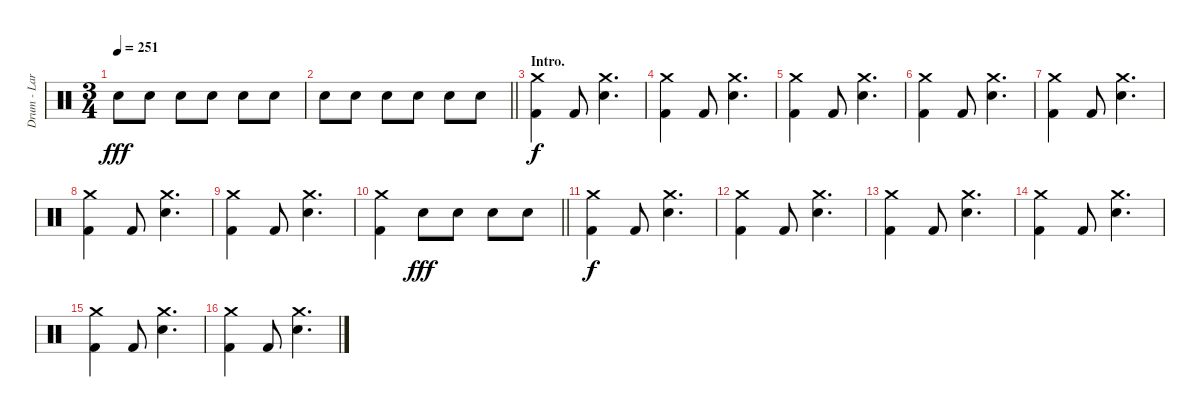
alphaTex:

\track ("Drum - Larzon" "Drum - Lar") {instrument percussion}
\staff {score}
\articulation defaults
\ts (3 4)
\tempo 251
\clef neutral
\ks c "Electric Snare (hit)".8{dy fff} "Electric Snare (hit)".8 "Electric Snare (hit)".8 "Electric Snare (hit)".8 "Electric Snare (hit)".8 "Electric Snare (hit)".8
|
\barLineRight lightlight "Electric Snare (hit)".8 "Electric Snare (hit)".8 "Electric Snare (hit)".8 "Electric Snare (hit)".8 "Electric Snare (hit)".8 "Electric Snare (hit)".8
|
\section ("" "Intro.")
("Kick (hit) 2" "Crash medium (hit)").4{dy f} "Kick (hit) 2".8 ("Snare (hit) 2" "Crash medium (hit)").4{d} |
("Kick (hit) 2" "Crash medium (hit)").4 "Kick (hit) 2".8 ("Snare (hit) 2" "Crash medium (hit)").4{d} |
("Kick (hit) 2" "Crash medium (hit)").4 "Kick (hit) 2".8 ("Snare (hit) 2" "Crash medium (hit)").4{d} |
("Kick (hit) 2" "Crash medium (hit)").4 "Kick (hit) 2".8 ("Snare (hit) 2" "Crash medium (hit)").4{d} |
("Kick (hit) 2" "Crash medium (hit)").4 "Kick (hit) 2".8 ("Snare (hit) 2" "Crash medium (hit)").4{d} |
("Kick (hit) 2" "Crash medium (hit)").4 "Kick (hit) 2".8 ("Snare (hit) 2" "Crash medium (hit)").4{d} |
("Kick (hit) 2" "Crash medium (hit)").4 "Kick (hit) 2".8 ("Snare (hit) 2" "Crash medium (hit)").4{d} |
\barLineRight lightlight
("Kick (hit) 2" "Crash medium (hit)").4 "Electric Snare (hit)".8{dy fff} "Electric Snare (hit)".8 "Electric Snare (hit)".8 "Electric Snare (hit)".8 |
("Kick (hit) 2" "Crash medium (hit)").4{dy f} "Kick (hit) 2".8 ("Snare (hit) 2" "Crash medium (hit)").4{d} |
("Kick (hit) 2" "Crash medium (hit)").4 "Kick (hit) 2".8 ("Snare (hit) 2" "Crash medium (hit)").4{d} |
("Kick (hit) 2" "Crash medium (hit)").4 "Kick (hit) 2".8 ("Snare (hit) 2" "Crash medium (hit)").4{d} |
("Kick (hit) 2" "Crash medium (hit)").4 "Kick (hit) 2".8 ("Snare (hit) 2" "Crash medium (hit)").4{d} |
("Kick (hit) 2" "Crash medium (hit)").4 "Kick (hit) 2".8 ("Snare (hit) 2" "Crash medium (hit)").4{d} |
("Kick (hit) 2" "Crash medium (hit)").4 "Kick (hit) 2".8 ("Snare (hit) 2" "Crash medium (hit)").4{d}
